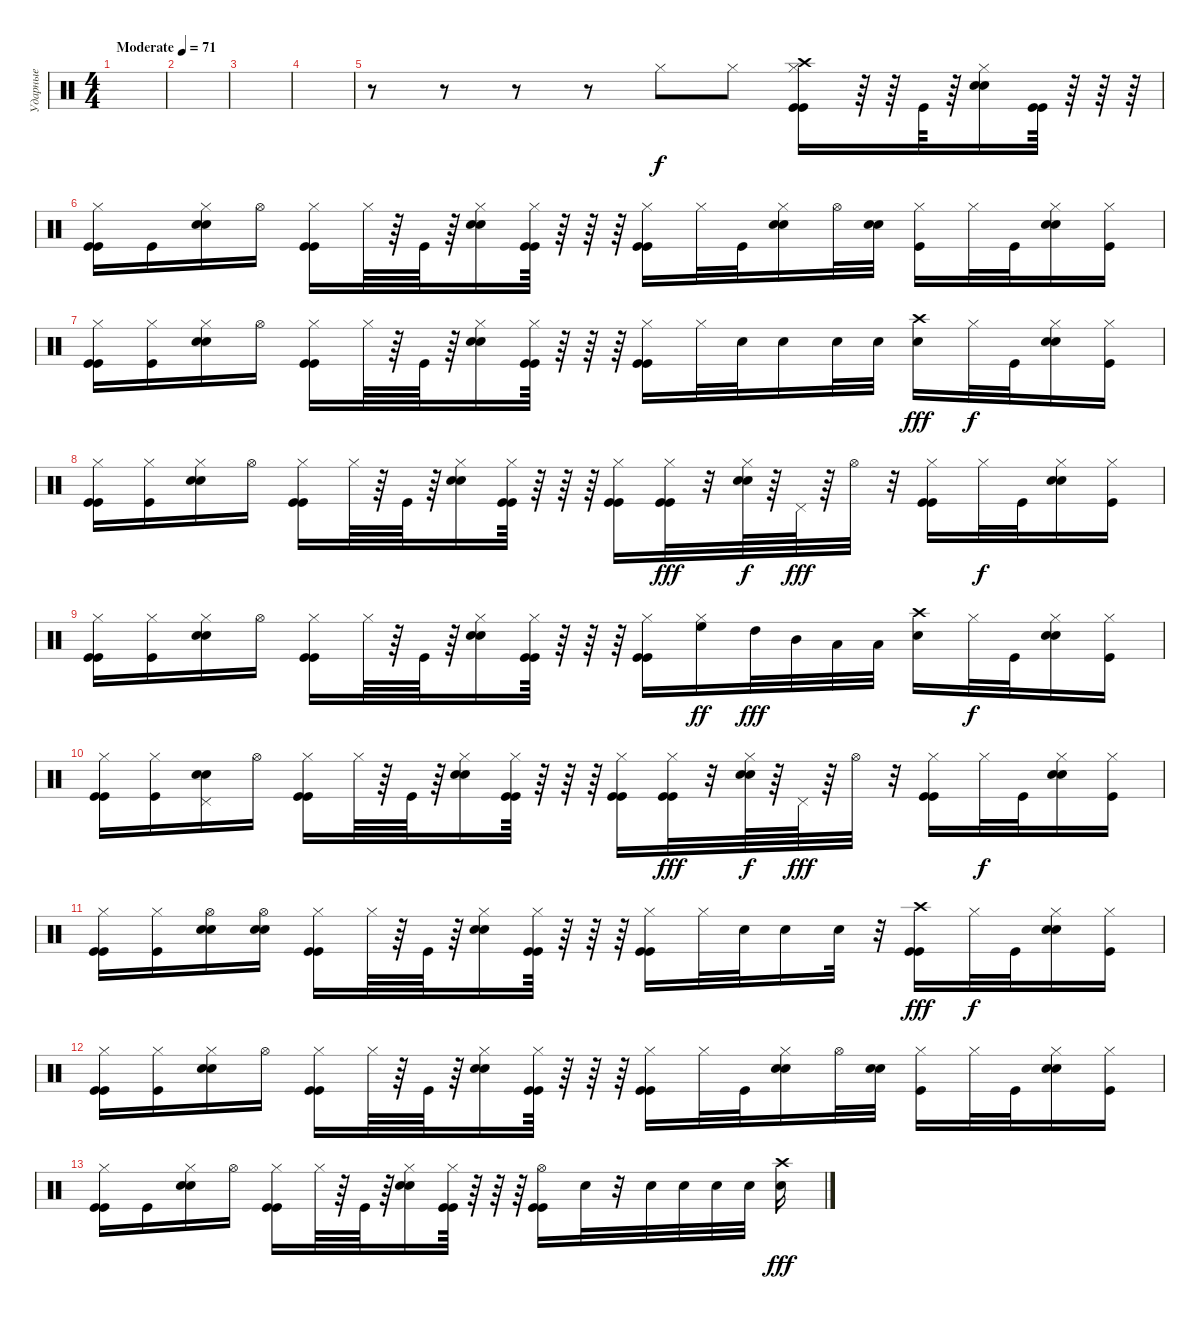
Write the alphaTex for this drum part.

\track ("Ударные" "Ударные") {instrument percussion}
\staff {score}
\articulation defaults
\ts (4 4)
\tempo (71 "Moderate")
\clef neutral
\ks c
|
|
|
|
r.8 r.8 r.8 r.8 "Hi-Hat (closed)".8 "Hi-Hat (closed)".8 ("Hi-Hat (closed)" "Crash high (hit)" "Kick (hit)" "Kick (hit)").16 r.64 r.64 "Kick (hit)".64 r.64 ("Hi-Hat (closed)" "Snare (hit) 2" "Snare (hit) 2").16 ("Kick (hit)" "Kick (hit)").64 r.64 r.64 r.64 |
("Hi-Hat (closed)" "Kick (hit)" "Kick (hit)").16 "Kick (hit)".16 ("Hi-Hat (closed)" "Snare (hit) 2" "Snare (hit) 2").16 "Hi-Hat (open)".16 ("Hi-Hat (closed)" "Kick (hit)" "Kick (hit)").16 "Hi-Hat (closed)".64 r.64 "Kick (hit)".64 r.64 ("Hi-Hat (closed)" "Snare (hit) 2" "Snare (hit) 2").16 ("Hi-Hat (closed)" "Kick (hit)" "Kick (hit)").64 r.64 r.64 r.64 ("Hi-Hat (closed)" "Kick (hit)" "Kick (hit)").16 "Hi-Hat (closed)".32 "Kick (hit)".32 ("Hi-Hat (closed)" "Snare (hit) 2" "Snare (hit) 2").16 "Hi-Hat (open)".32 ("Snare (hit) 2" "Snare (hit) 2").32 ("Hi-Hat (closed)" "Kick (hit)").16 "Hi-Hat (closed)".32 "Kick (hit)".32 ("Hi-Hat (closed)" "Snare (hit) 2" "Snare (hit) 2").16 ("Hi-Hat (closed)" "Kick (hit)").16 |
("Hi-Hat (closed)" "Kick (hit)" "Kick (hit)").16 ("Hi-Hat (closed)" "Kick (hit)").16 ("Hi-Hat (closed)" "Snare (hit) 2" "Snare (hit) 2").16 "Hi-Hat (open)".16 ("Hi-Hat (closed)" "Kick (hit)" "Kick (hit)").16 "Hi-Hat (closed)".64 r.64 "Kick (hit)".64 r.64 ("Hi-Hat (closed)" "Snare (hit) 2" "Snare (hit) 2").16 ("Hi-Hat (closed)" "Kick (hit)" "Kick (hit)").64 r.64 r.64 r.64 ("Hi-Hat (closed)" "Kick (hit)" "Kick (hit)").16 "Hi-Hat (closed)".32 "Snare (hit) 2".32 "Snare (hit) 2".16 "Snare (hit) 2".32 "Snare (hit) 2".32 ("Crash high (hit)" "Snare (hit) 2").16{dy fff} "Hi-Hat (closed)".32{dy f} "Kick (hit)".32 ("Hi-Hat (closed)" "Snare (hit) 2" "Snare (hit) 2").16 ("Hi-Hat (closed)" "Kick (hit)").16 |
("Hi-Hat (closed)" "Kick (hit)" "Kick (hit)").16 ("Hi-Hat (closed)" "Kick (hit)").16 ("Hi-Hat (closed)" "Snare (hit) 2" "Snare (hit) 2").16 "Hi-Hat (open)".16 ("Hi-Hat (closed)" "Kick (hit)" "Kick (hit)").16 "Hi-Hat (closed)".64 r.64 "Kick (hit)".64 r.64 ("Hi-Hat (closed)" "Snare (hit) 2" "Snare (hit) 2").16 ("Hi-Hat (closed)" "Kick (hit)" "Kick (hit)").64 r.64 r.64 r.64 ("Hi-Hat (closed)" "Kick (hit)" "Kick (hit)").16 ("Hi-Hat (closed)" "Kick (hit)" "Kick (hit)").32{dy fff} r.32 ("Hi-Hat (closed)" "Snare (hit) 2" "Snare (hit) 2").64{dy f} r.64 "Pedal Hi-Hat (hit)".64{dy fff} r.64 "Hi-Hat (open)".32 r.32 ("Hi-Hat (closed)" "Kick (hit)" "Kick (hit)").16 "Hi-Hat (closed)".32{dy f} "Kick (hit)".32 ("Hi-Hat (closed)" "Snare (hit) 2" "Snare (hit) 2").16 ("Hi-Hat (closed)" "Kick (hit)").16 |
("Hi-Hat (closed)" "Kick (hit)" "Kick (hit)").16 ("Hi-Hat (closed)" "Kick (hit)").16 ("Hi-Hat (closed)" "Snare (hit) 2" "Snare (hit) 2").16 "Hi-Hat (open)".16 ("Hi-Hat (closed)" "Kick (hit)" "Kick (hit)").16 "Hi-Hat (closed)".64 r.64 "Kick (hit)".64 r.64 ("Hi-Hat (closed)" "Snare (hit) 2" "Snare (hit) 2").16 ("Hi-Hat (closed)" "Kick (hit)" "Kick (hit)").64 r.64 r.64 r.64 ("Hi-Hat (closed)" "Kick (hit)" "Kick (hit)").16 ("Hi-Hat (closed)" "High Floor Tom (hit)").16{dy ff} "High Tom (hit)".32{dy fff} "Mid Tom (hit)".32 "Low Tom (hit)".32 "Low Tom (hit)".32 ("Crash high (hit)" "Snare (hit) 2").16 "Hi-Hat (closed)".32{dy f} "Kick (hit)".32 ("Hi-Hat (closed)" "Snare (hit) 2" "Snare (hit) 2").16 ("Hi-Hat (closed)" "Kick (hit)").16 |
("Hi-Hat (closed)" "Kick (hit)" "Kick (hit)").16 ("Hi-Hat (closed)" "Kick (hit)").16 ("Pedal Hi-Hat (hit)" "Snare (hit) 2" "Snare (hit) 2").16 "Hi-Hat (open)".16 ("Hi-Hat (closed)" "Kick (hit)" "Kick (hit)").16 "Hi-Hat (closed)".64 r.64 "Kick (hit)".64 r.64 ("Hi-Hat (closed)" "Snare (hit) 2" "Snare (hit) 2").16 ("Hi-Hat (closed)" "Kick (hit)" "Kick (hit)").64 r.64 r.64 r.64 ("Hi-Hat (closed)" "Kick (hit)" "Kick (hit)").16 ("Hi-Hat (closed)" "Kick (hit)" "Kick (hit)").32{dy fff} r.32 ("Hi-Hat (closed)" "Snare (hit) 2" "Snare (hit) 2").64{dy f} r.64 "Pedal Hi-Hat (hit)".64{dy fff} r.64 "Hi-Hat (open)".32 r.32 ("Hi-Hat (closed)" "Kick (hit)" "Kick (hit)").16 "Hi-Hat (closed)".32{dy f} "Kick (hit)".32 ("Hi-Hat (closed)" "Snare (hit) 2" "Snare (hit) 2").16 ("Hi-Hat (closed)" "Kick (hit)").16 |
("Hi-Hat (closed)" "Kick (hit)" "Kick (hit)").16 ("Hi-Hat (closed)" "Kick (hit)").16 ("Hi-Hat (open)" "Snare (hit) 2" "Snare (hit) 2").16 ("Hi-Hat (open)" "Snare (hit) 2" "Snare (hit) 2").16 ("Hi-Hat (closed)" "Kick (hit)" "Kick (hit)").16 "Hi-Hat (closed)".64 r.64 "Kick (hit)".64 r.64 ("Hi-Hat (closed)" "Snare (hit) 2" "Snare (hit) 2").16 ("Hi-Hat (closed)" "Kick (hit)" "Kick (hit)").64 r.64 r.64 r.64 ("Hi-Hat (closed)" "Kick (hit)" "Kick (hit)").16 "Hi-Hat (closed)".32 "Snare (hit) 2".32 "Snare (hit) 2".16 "Snare (hit) 2".32 r.32 ("Crash high (hit)" "Kick (hit)" "Kick (hit)").16{dy fff} "Hi-Hat (closed)".32{dy f} "Kick (hit)".32 ("Hi-Hat (closed)" "Snare (hit) 2" "Snare (hit) 2").16 ("Hi-Hat (closed)" "Kick (hit)").16 |
("Hi-Hat (closed)" "Kick (hit)" "Kick (hit)").16 ("Hi-Hat (closed)" "Kick (hit)").16 ("Hi-Hat (closed)" "Snare (hit) 2" "Snare (hit) 2").16 "Hi-Hat (open)".16 ("Hi-Hat (closed)" "Kick (hit)" "Kick (hit)").16 "Hi-Hat (closed)".64 r.64 "Kick (hit)".64 r.64 ("Hi-Hat (closed)" "Snare (hit) 2" "Snare (hit) 2").16 ("Hi-Hat (closed)" "Kick (hit)" "Kick (hit)").64 r.64 r.64 r.64 ("Hi-Hat (closed)" "Kick (hit)" "Kick (hit)").16 "Hi-Hat (closed)".32 "Kick (hit)".32 ("Hi-Hat (closed)" "Snare (hit) 2" "Snare (hit) 2").16 "Hi-Hat (open)".32 ("Snare (hit) 2" "Snare (hit) 2").32 ("Hi-Hat (closed)" "Kick (hit)").16 "Hi-Hat (closed)".32 "Kick (hit)".32 ("Hi-Hat (closed)" "Snare (hit) 2" "Snare (hit) 2").16 ("Hi-Hat (closed)" "Kick (hit)").16 |
("Hi-Hat (closed)" "Kick (hit)" "Kick (hit)").16 "Kick (hit)".16 ("Hi-Hat (closed)" "Snare (hit) 2" "Snare (hit) 2").16 "Hi-Hat (open)".16 ("Hi-Hat (closed)" "Kick (hit)" "Kick (hit)").16 "Hi-Hat (closed)".64 r.64 "Kick (hit)".64 r.64 ("Hi-Hat (closed)" "Snare (hit) 2" "Snare (hit) 2").16 ("Hi-Hat (closed)" "Kick (hit)" "Kick (hit)").64 r.64 r.64 r.64 ("Hi-Hat (open)" "Kick (hit)" "Kick (hit)").16 "Snare (hit) 2".32 r.32 "Snare (hit) 2".32 "Snare (hit) 2".32 "Snare (hit) 2".32 "Snare (hit) 2".32 ("Crash high (hit)" "Snare (hit) 2").16{dy fff}
